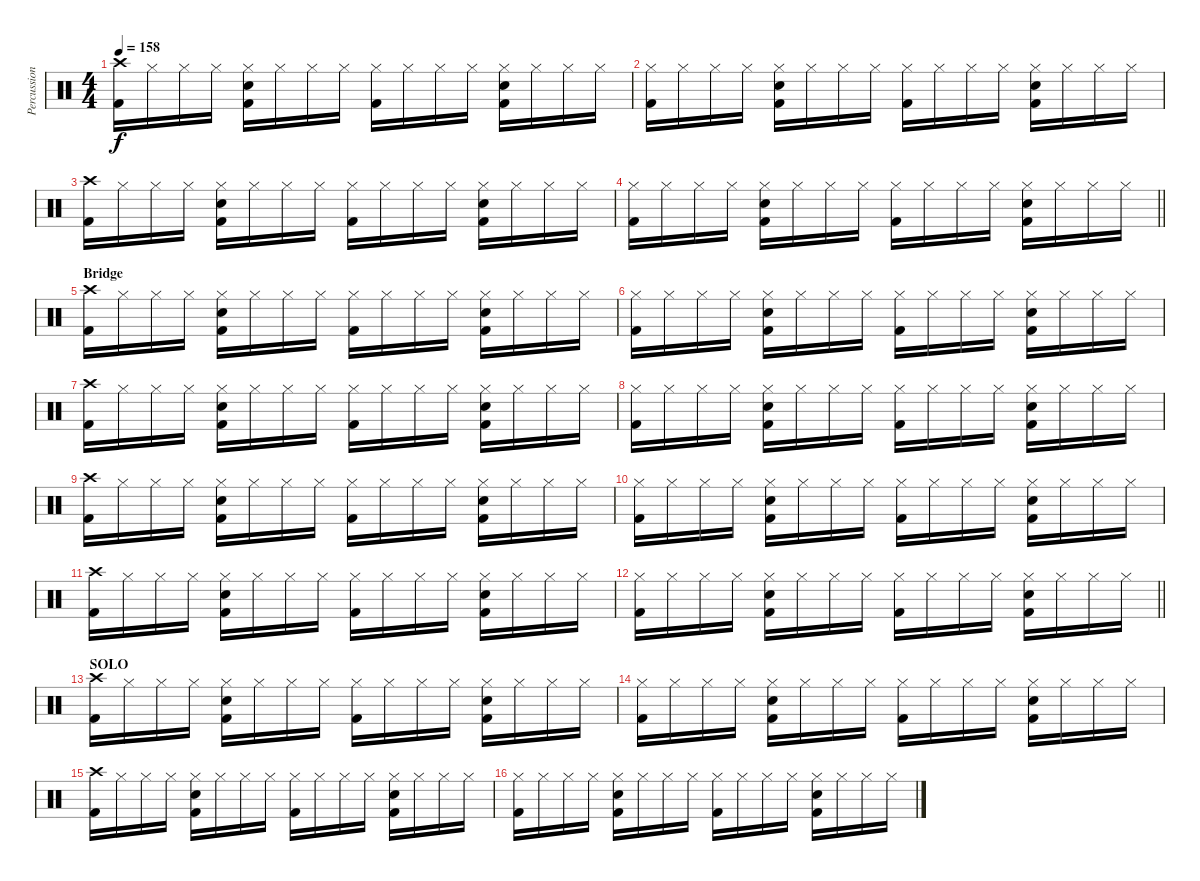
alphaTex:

\track ("Percussion" "Percussion") {instrument percussion}
\staff {score}
\articulation defaults
\ts (4 4)
\tempo 158
\clef neutral
\ks c
("Crash high (hit)" "Kick (hit) 2").16{dy f} "Hi-Hat (closed)".16 "Hi-Hat (closed)".16 "Hi-Hat (closed)".16 ("Hi-Hat (closed)" "Electric Snare (hit)" "Kick (hit) 2").16 "Hi-Hat (closed)".16 "Hi-Hat (closed)".16 "Hi-Hat (closed)".16 ("Hi-Hat (closed)" "Kick (hit) 2").16 "Hi-Hat (closed)".16 "Hi-Hat (closed)".16 "Hi-Hat (closed)".16 ("Hi-Hat (closed)" "Electric Snare (hit)" "Kick (hit) 2").16 "Hi-Hat (closed)".16 "Hi-Hat (closed)".16 "Hi-Hat (closed)".16 |
("Hi-Hat (closed)" "Kick (hit) 2").16 "Hi-Hat (closed)".16 "Hi-Hat (closed)".16 "Hi-Hat (closed)".16 ("Hi-Hat (closed)" "Electric Snare (hit)" "Kick (hit) 2").16 "Hi-Hat (closed)".16 "Hi-Hat (closed)".16 "Hi-Hat (closed)".16 ("Hi-Hat (closed)" "Kick (hit) 2").16 "Hi-Hat (closed)".16 "Hi-Hat (closed)".16 "Hi-Hat (closed)".16 ("Hi-Hat (closed)" "Electric Snare (hit)" "Kick (hit) 2").16 "Hi-Hat (closed)".16 "Hi-Hat (closed)".16 "Hi-Hat (closed)".16 |
("Crash high (hit)" "Kick (hit) 2").16 "Hi-Hat (closed)".16 "Hi-Hat (closed)".16 "Hi-Hat (closed)".16 ("Hi-Hat (closed)" "Electric Snare (hit)" "Kick (hit) 2").16 "Hi-Hat (closed)".16 "Hi-Hat (closed)".16 "Hi-Hat (closed)".16 ("Hi-Hat (closed)" "Kick (hit) 2").16 "Hi-Hat (closed)".16 "Hi-Hat (closed)".16 "Hi-Hat (closed)".16 ("Hi-Hat (closed)" "Electric Snare (hit)" "Kick (hit) 2").16 "Hi-Hat (closed)".16 "Hi-Hat (closed)".16 "Hi-Hat (closed)".16 |
\barLineRight lightlight
("Hi-Hat (closed)" "Kick (hit) 2").16 "Hi-Hat (closed)".16 "Hi-Hat (closed)".16 "Hi-Hat (closed)".16 ("Hi-Hat (closed)" "Electric Snare (hit)" "Kick (hit) 2").16 "Hi-Hat (closed)".16 "Hi-Hat (closed)".16 "Hi-Hat (closed)".16 ("Hi-Hat (closed)" "Kick (hit) 2").16 "Hi-Hat (closed)".16 "Hi-Hat (closed)".16 "Hi-Hat (closed)".16 ("Hi-Hat (closed)" "Electric Snare (hit)" "Kick (hit) 2").16 "Hi-Hat (closed)".16 "Hi-Hat (closed)".16 "Hi-Hat (closed)".16 |
\section ("" "Bridge")
("Crash high (hit)" "Kick (hit) 2").16 "Hi-Hat (closed)".16 "Hi-Hat (closed)".16 "Hi-Hat (closed)".16 ("Hi-Hat (closed)" "Electric Snare (hit)" "Kick (hit) 2").16 "Hi-Hat (closed)".16 "Hi-Hat (closed)".16 "Hi-Hat (closed)".16 ("Hi-Hat (closed)" "Kick (hit) 2").16 "Hi-Hat (closed)".16 "Hi-Hat (closed)".16 "Hi-Hat (closed)".16 ("Hi-Hat (closed)" "Electric Snare (hit)" "Kick (hit) 2").16 "Hi-Hat (closed)".16 "Hi-Hat (closed)".16 "Hi-Hat (closed)".16 |
("Hi-Hat (closed)" "Kick (hit) 2").16 "Hi-Hat (closed)".16 "Hi-Hat (closed)".16 "Hi-Hat (closed)".16 ("Hi-Hat (closed)" "Electric Snare (hit)" "Kick (hit) 2").16 "Hi-Hat (closed)".16 "Hi-Hat (closed)".16 "Hi-Hat (closed)".16 ("Hi-Hat (closed)" "Kick (hit) 2").16 "Hi-Hat (closed)".16 "Hi-Hat (closed)".16 "Hi-Hat (closed)".16 ("Hi-Hat (closed)" "Electric Snare (hit)" "Kick (hit) 2").16 "Hi-Hat (closed)".16 "Hi-Hat (closed)".16 "Hi-Hat (closed)".16 |
("Crash high (hit)" "Kick (hit) 2").16 "Hi-Hat (closed)".16 "Hi-Hat (closed)".16 "Hi-Hat (closed)".16 ("Hi-Hat (closed)" "Electric Snare (hit)" "Kick (hit) 2").16 "Hi-Hat (closed)".16 "Hi-Hat (closed)".16 "Hi-Hat (closed)".16 ("Hi-Hat (closed)" "Kick (hit) 2").16 "Hi-Hat (closed)".16 "Hi-Hat (closed)".16 "Hi-Hat (closed)".16 ("Hi-Hat (closed)" "Electric Snare (hit)" "Kick (hit) 2").16 "Hi-Hat (closed)".16 "Hi-Hat (closed)".16 "Hi-Hat (closed)".16 |
("Hi-Hat (closed)" "Kick (hit) 2").16 "Hi-Hat (closed)".16 "Hi-Hat (closed)".16 "Hi-Hat (closed)".16 ("Hi-Hat (closed)" "Electric Snare (hit)" "Kick (hit) 2").16 "Hi-Hat (closed)".16 "Hi-Hat (closed)".16 "Hi-Hat (closed)".16 ("Hi-Hat (closed)" "Kick (hit) 2").16 "Hi-Hat (closed)".16 "Hi-Hat (closed)".16 "Hi-Hat (closed)".16 ("Hi-Hat (closed)" "Electric Snare (hit)" "Kick (hit) 2").16 "Hi-Hat (closed)".16 "Hi-Hat (closed)".16 "Hi-Hat (closed)".16 |
("Crash high (hit)" "Kick (hit) 2").16 "Hi-Hat (closed)".16 "Hi-Hat (closed)".16 "Hi-Hat (closed)".16 ("Hi-Hat (closed)" "Electric Snare (hit)" "Kick (hit) 2").16 "Hi-Hat (closed)".16 "Hi-Hat (closed)".16 "Hi-Hat (closed)".16 ("Hi-Hat (closed)" "Kick (hit) 2").16 "Hi-Hat (closed)".16 "Hi-Hat (closed)".16 "Hi-Hat (closed)".16 ("Hi-Hat (closed)" "Electric Snare (hit)" "Kick (hit) 2").16 "Hi-Hat (closed)".16 "Hi-Hat (closed)".16 "Hi-Hat (closed)".16 |
("Hi-Hat (closed)" "Kick (hit) 2").16 "Hi-Hat (closed)".16 "Hi-Hat (closed)".16 "Hi-Hat (closed)".16 ("Hi-Hat (closed)" "Electric Snare (hit)" "Kick (hit) 2").16 "Hi-Hat (closed)".16 "Hi-Hat (closed)".16 "Hi-Hat (closed)".16 ("Hi-Hat (closed)" "Kick (hit) 2").16 "Hi-Hat (closed)".16 "Hi-Hat (closed)".16 "Hi-Hat (closed)".16 ("Hi-Hat (closed)" "Electric Snare (hit)" "Kick (hit) 2").16 "Hi-Hat (closed)".16 "Hi-Hat (closed)".16 "Hi-Hat (closed)".16 |
("Crash high (hit)" "Kick (hit) 2").16 "Hi-Hat (closed)".16 "Hi-Hat (closed)".16 "Hi-Hat (closed)".16 ("Hi-Hat (closed)" "Electric Snare (hit)" "Kick (hit) 2").16 "Hi-Hat (closed)".16 "Hi-Hat (closed)".16 "Hi-Hat (closed)".16 ("Hi-Hat (closed)" "Kick (hit) 2").16 "Hi-Hat (closed)".16 "Hi-Hat (closed)".16 "Hi-Hat (closed)".16 ("Hi-Hat (closed)" "Electric Snare (hit)" "Kick (hit) 2").16 "Hi-Hat (closed)".16 "Hi-Hat (closed)".16 "Hi-Hat (closed)".16 |
\barLineRight lightlight
("Hi-Hat (closed)" "Kick (hit) 2").16 "Hi-Hat (closed)".16 "Hi-Hat (closed)".16 "Hi-Hat (closed)".16 ("Hi-Hat (closed)" "Electric Snare (hit)" "Kick (hit) 2").16 "Hi-Hat (closed)".16 "Hi-Hat (closed)".16 "Hi-Hat (closed)".16 ("Hi-Hat (closed)" "Kick (hit) 2").16 "Hi-Hat (closed)".16 "Hi-Hat (closed)".16 "Hi-Hat (closed)".16 ("Hi-Hat (closed)" "Electric Snare (hit)" "Kick (hit) 2").16 "Hi-Hat (closed)".16 "Hi-Hat (closed)".16 "Hi-Hat (closed)".16 |
\section ("" "SOLO")
("Crash high (hit)" "Kick (hit) 2").16 "Hi-Hat (closed)".16 "Hi-Hat (closed)".16 "Hi-Hat (closed)".16 ("Hi-Hat (closed)" "Electric Snare (hit)" "Kick (hit) 2").16 "Hi-Hat (closed)".16 "Hi-Hat (closed)".16 "Hi-Hat (closed)".16 ("Hi-Hat (closed)" "Kick (hit) 2").16 "Hi-Hat (closed)".16 "Hi-Hat (closed)".16 "Hi-Hat (closed)".16 ("Hi-Hat (closed)" "Electric Snare (hit)" "Kick (hit) 2").16 "Hi-Hat (closed)".16 "Hi-Hat (closed)".16 "Hi-Hat (closed)".16 |
("Hi-Hat (closed)" "Kick (hit) 2").16 "Hi-Hat (closed)".16 "Hi-Hat (closed)".16 "Hi-Hat (closed)".16 ("Hi-Hat (closed)" "Electric Snare (hit)" "Kick (hit) 2").16 "Hi-Hat (closed)".16 "Hi-Hat (closed)".16 "Hi-Hat (closed)".16 ("Hi-Hat (closed)" "Kick (hit) 2").16 "Hi-Hat (closed)".16 "Hi-Hat (closed)".16 "Hi-Hat (closed)".16 ("Hi-Hat (closed)" "Electric Snare (hit)" "Kick (hit) 2").16 "Hi-Hat (closed)".16 "Hi-Hat (closed)".16 "Hi-Hat (closed)".16 |
("Crash high (hit)" "Kick (hit) 2").16 "Hi-Hat (closed)".16 "Hi-Hat (closed)".16 "Hi-Hat (closed)".16 ("Hi-Hat (closed)" "Electric Snare (hit)" "Kick (hit) 2").16 "Hi-Hat (closed)".16 "Hi-Hat (closed)".16 "Hi-Hat (closed)".16 ("Hi-Hat (closed)" "Kick (hit) 2").16 "Hi-Hat (closed)".16 "Hi-Hat (closed)".16 "Hi-Hat (closed)".16 ("Hi-Hat (closed)" "Electric Snare (hit)" "Kick (hit) 2").16 "Hi-Hat (closed)".16 "Hi-Hat (closed)".16 "Hi-Hat (closed)".16 |
("Hi-Hat (closed)" "Kick (hit) 2").16 "Hi-Hat (closed)".16 "Hi-Hat (closed)".16 "Hi-Hat (closed)".16 ("Hi-Hat (closed)" "Electric Snare (hit)" "Kick (hit) 2").16 "Hi-Hat (closed)".16 "Hi-Hat (closed)".16 "Hi-Hat (closed)".16 ("Hi-Hat (closed)" "Kick (hit) 2").16 "Hi-Hat (closed)".16 "Hi-Hat (closed)".16 "Hi-Hat (closed)".16 ("Hi-Hat (closed)" "Electric Snare (hit)" "Kick (hit) 2").16 "Hi-Hat (closed)".16 "Hi-Hat (closed)".16 "Hi-Hat (closed)".16
